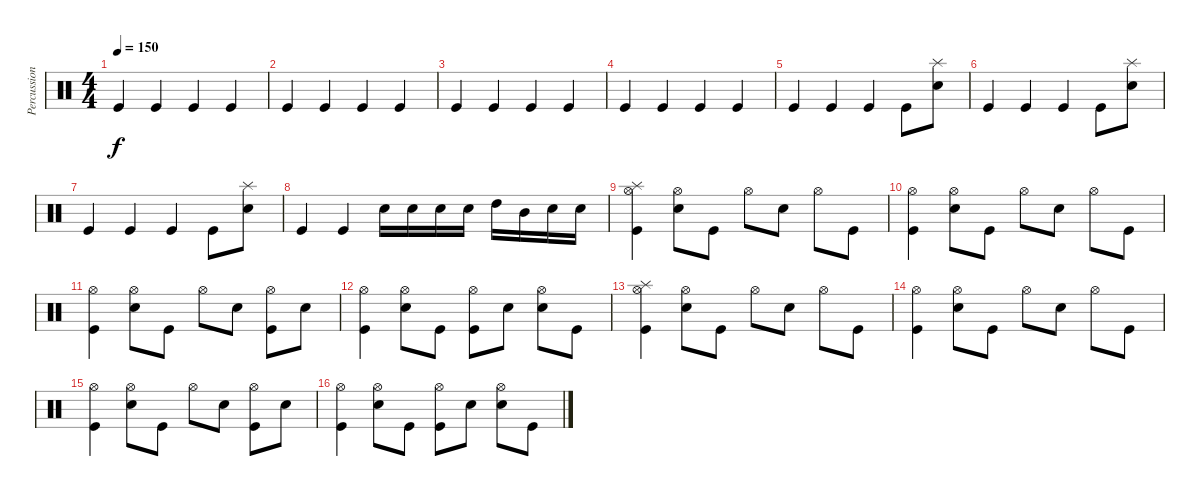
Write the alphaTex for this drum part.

\track ("Percussions" "Percussion") {instrument percussion}
\staff {score}
\articulation defaults
\ts (4 4)
\tempo 150
\clef neutral
\ks c "Kick (hit)".4{dy f} "Kick (hit)".4 "Kick (hit)".4 "Kick (hit)".4
|
"Kick (hit)".4 "Kick (hit)".4 "Kick (hit)".4 "Kick (hit)".4 |
"Kick (hit)".4 "Kick (hit)".4 "Kick (hit)".4 "Kick (hit)".4 |
"Kick (hit)".4 "Kick (hit)".4 "Kick (hit)".4 "Kick (hit)".4 |
"Kick (hit)".4 "Kick (hit)".4 "Kick (hit)".4 "Kick (hit)".8 ("Splash (hit)" "Electric Snare (hit)").8 |
"Kick (hit)".4 "Kick (hit)".4 "Kick (hit)".4 "Kick (hit)".8 ("Splash (hit)" "Electric Snare (hit)").8 |
"Kick (hit)".4 "Kick (hit)".4 "Kick (hit)".4 "Kick (hit)".8 ("Splash (hit)" "Electric Snare (hit)").8 |
"Kick (hit)".4 "Kick (hit)".4 "Electric Snare (hit)".16 "Electric Snare (hit)".16 "Electric Snare (hit)".16 "Electric Snare (hit)".16 "High Tom (hit)".16 "Mid Tom (hit)".16 "Electric Snare (hit)".16 "Electric Snare (hit)".16 |
("Splash (hit)" "Hi-Hat (open)" "Kick (hit)").4 ("Hi-Hat (open)" "Electric Snare (hit)").8 "Kick (hit)".8 "Hi-Hat (open)".8 "Electric Snare (hit)".8 "Hi-Hat (open)".8 "Kick (hit)".8 |
("Hi-Hat (open)" "Kick (hit)").4 ("Hi-Hat (open)" "Electric Snare (hit)").8 "Kick (hit)".8 "Hi-Hat (open)".8 "Electric Snare (hit)".8 "Hi-Hat (open)".8 "Kick (hit)".8 |
("Hi-Hat (open)" "Kick (hit)").4 ("Hi-Hat (open)" "Electric Snare (hit)").8 "Kick (hit)".8 "Hi-Hat (open)".8 "Electric Snare (hit)".8 ("Hi-Hat (open)" "Kick (hit)").8 "Electric Snare (hit)".8 |
("Hi-Hat (open)" "Kick (hit)").4 ("Hi-Hat (open)" "Electric Snare (hit)").8 "Kick (hit)".8 ("Hi-Hat (open)" "Kick (hit)").8 "Electric Snare (hit)".8 ("Hi-Hat (open)" "Electric Snare (hit)").8 "Kick (hit)".8 |
("Splash (hit)" "Hi-Hat (open)" "Kick (hit)").4 ("Hi-Hat (open)" "Electric Snare (hit)").8 "Kick (hit)".8 "Hi-Hat (open)".8 "Electric Snare (hit)".8 "Hi-Hat (open)".8 "Kick (hit)".8 |
("Hi-Hat (open)" "Kick (hit)").4 ("Hi-Hat (open)" "Electric Snare (hit)").8 "Kick (hit)".8 "Hi-Hat (open)".8 "Electric Snare (hit)".8 "Hi-Hat (open)".8 "Kick (hit)".8 |
("Hi-Hat (open)" "Kick (hit)").4 ("Hi-Hat (open)" "Electric Snare (hit)").8 "Kick (hit)".8 "Hi-Hat (open)".8 "Electric Snare (hit)".8 ("Hi-Hat (open)" "Kick (hit)").8 "Electric Snare (hit)".8 |
("Hi-Hat (open)" "Kick (hit)").4 ("Hi-Hat (open)" "Electric Snare (hit)").8 "Kick (hit)".8 ("Hi-Hat (open)" "Kick (hit)").8 "Electric Snare (hit)".8 ("Hi-Hat (open)" "Electric Snare (hit)").8 "Kick (hit)".8
